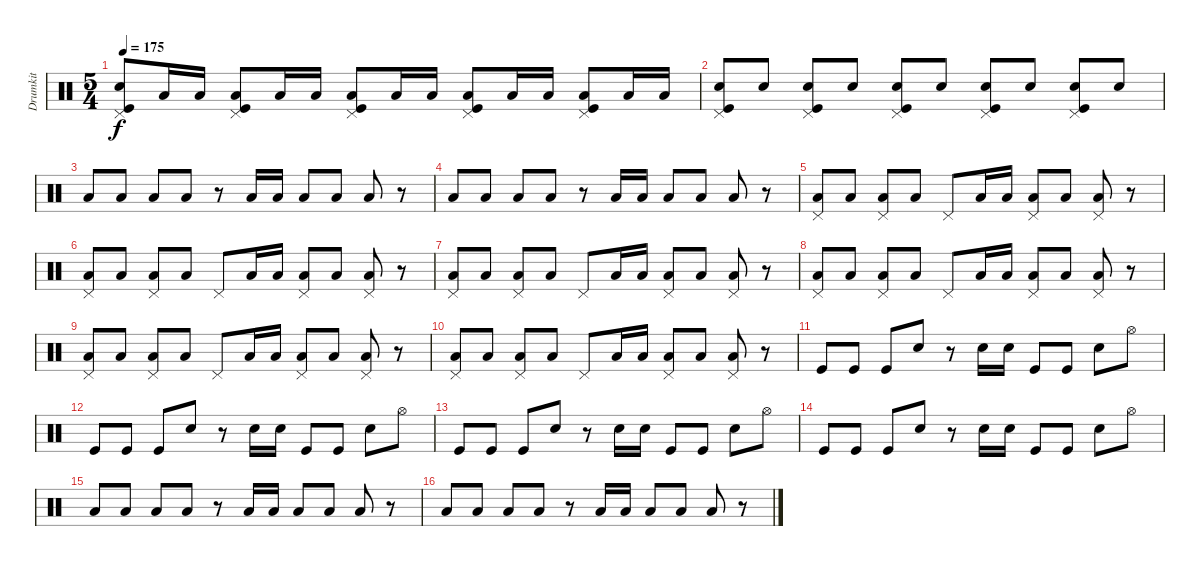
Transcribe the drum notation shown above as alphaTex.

\track ("Drumkit" "Drumkit") {instrument percussion}
\staff {score}
\articulation defaults
\ts (5 4)
\tempo 175
\clef neutral
\ks c
("Pedal Hi-Hat (hit)" "Kick (hit)" "Snare (hit) 2").8{dy f} "Low Floor Tom (hit)".16 "Low Floor Tom (hit)".16 ("Pedal Hi-Hat (hit)" "Kick (hit)" "Low Floor Tom (hit)").8 "Low Floor Tom (hit)".16 "Low Floor Tom (hit)".16 ("Pedal Hi-Hat (hit)" "Kick (hit)" "Low Floor Tom (hit)").8 "Low Floor Tom (hit)".16 "Low Floor Tom (hit)".16 ("Pedal Hi-Hat (hit)" "Kick (hit)" "Low Floor Tom (hit)").8 "Low Floor Tom (hit)".16 "Low Floor Tom (hit)".16 ("Pedal Hi-Hat (hit)" "Kick (hit)" "Low Floor Tom (hit)").8 "Low Floor Tom (hit)".16 "Low Floor Tom (hit)".16 |
("Kick (hit)" "Pedal Hi-Hat (hit)" "Snare (hit) 2").8 "Snare (hit) 2".8 ("Kick (hit)" "Pedal Hi-Hat (hit)" "Snare (hit) 2").8 "Snare (hit) 2".8 ("Kick (hit)" "Pedal Hi-Hat (hit)" "Snare (hit) 2").8 "Snare (hit) 2".8 ("Kick (hit)" "Pedal Hi-Hat (hit)" "Snare (hit) 2").8 "Snare (hit) 2".8 ("Kick (hit)" "Pedal Hi-Hat (hit)" "Snare (hit) 2").8 "Snare (hit) 2".8 |
"Low Tom (hit)".8 "Low Tom (hit)".8 "Low Tom (hit)".8 "Low Tom (hit)".8 r.8 "Low Tom (hit)".16 "Low Tom (hit)".16 "Low Tom (hit)".8 "Low Tom (hit)".8 "Low Tom (hit)".8 r.8 |
"Low Tom (hit)".8 "Low Tom (hit)".8 "Low Tom (hit)".8 "Low Tom (hit)".8 r.8 "Low Tom (hit)".16 "Low Tom (hit)".16 "Low Tom (hit)".8 "Low Tom (hit)".8 "Low Tom (hit)".8 r.8 |
("Low Tom (hit)" "Pedal Hi-Hat (hit)").8 "Low Tom (hit)".8 ("Low Tom (hit)" "Pedal Hi-Hat (hit)").8 "Low Tom (hit)".8 "Pedal Hi-Hat (hit)".8 "Low Tom (hit)".16 "Low Tom (hit)".16 ("Low Tom (hit)" "Pedal Hi-Hat (hit)").8 "Low Tom (hit)".8 ("Low Tom (hit)" "Pedal Hi-Hat (hit)").8 r.8 |
("Low Tom (hit)" "Pedal Hi-Hat (hit)").8 "Low Tom (hit)".8 ("Low Tom (hit)" "Pedal Hi-Hat (hit)").8 "Low Tom (hit)".8 "Pedal Hi-Hat (hit)".8 "Low Tom (hit)".16 "Low Tom (hit)".16 ("Low Tom (hit)" "Pedal Hi-Hat (hit)").8 "Low Tom (hit)".8 ("Low Tom (hit)" "Pedal Hi-Hat (hit)").8 r.8 |
("Low Tom (hit)" "Pedal Hi-Hat (hit)").8 "Low Tom (hit)".8 ("Low Tom (hit)" "Pedal Hi-Hat (hit)").8 "Low Tom (hit)".8 "Pedal Hi-Hat (hit)".8 "Low Tom (hit)".16 "Low Tom (hit)".16 ("Low Tom (hit)" "Pedal Hi-Hat (hit)").8 "Low Tom (hit)".8 ("Low Tom (hit)" "Pedal Hi-Hat (hit)").8 r.8 |
("Low Tom (hit)" "Pedal Hi-Hat (hit)").8 "Low Tom (hit)".8 ("Low Tom (hit)" "Pedal Hi-Hat (hit)").8 "Low Tom (hit)".8 "Pedal Hi-Hat (hit)".8 "Low Tom (hit)".16 "Low Tom (hit)".16 ("Low Tom (hit)" "Pedal Hi-Hat (hit)").8 "Low Tom (hit)".8 ("Low Tom (hit)" "Pedal Hi-Hat (hit)").8 r.8 |
("Low Tom (hit)" "Pedal Hi-Hat (hit)").8 "Low Tom (hit)".8 ("Low Tom (hit)" "Pedal Hi-Hat (hit)").8 "Low Tom (hit)".8 "Pedal Hi-Hat (hit)".8 "Low Tom (hit)".16 "Low Tom (hit)".16 ("Low Tom (hit)" "Pedal Hi-Hat (hit)").8 "Low Tom (hit)".8 ("Low Tom (hit)" "Pedal Hi-Hat (hit)").8 r.8 |
("Low Tom (hit)" "Pedal Hi-Hat (hit)").8 "Low Tom (hit)".8 ("Low Tom (hit)" "Pedal Hi-Hat (hit)").8 "Low Tom (hit)".8 "Pedal Hi-Hat (hit)".8 "Low Tom (hit)".16 "Low Tom (hit)".16 ("Low Tom (hit)" "Pedal Hi-Hat (hit)").8 "Low Tom (hit)".8 ("Low Tom (hit)" "Pedal Hi-Hat (hit)").8 r.8 |
"Kick (hit)".8 "Kick (hit)".8 "Kick (hit)".8 "Snare (hit) 2".8 r.8 "Snare (hit) 2".16 "Snare (hit) 2".16 "Kick (hit)".8 "Kick (hit)".8 "Snare (hit) 2".8 "Hi-Hat (open)".8 |
"Kick (hit)".8 "Kick (hit)".8 "Kick (hit)".8 "Snare (hit) 2".8 r.8 "Snare (hit) 2".16 "Snare (hit) 2".16 "Kick (hit)".8 "Kick (hit)".8 "Snare (hit) 2".8 "Hi-Hat (open)".8 |
"Kick (hit)".8 "Kick (hit)".8 "Kick (hit)".8 "Snare (hit) 2".8 r.8 "Snare (hit) 2".16 "Snare (hit) 2".16 "Kick (hit)".8 "Kick (hit)".8 "Snare (hit) 2".8 "Hi-Hat (open)".8 |
"Kick (hit)".8 "Kick (hit)".8 "Kick (hit)".8 "Snare (hit) 2".8 r.8 "Snare (hit) 2".16 "Snare (hit) 2".16 "Kick (hit)".8 "Kick (hit)".8 "Snare (hit) 2".8 "Hi-Hat (open)".8 |
"Low Tom (hit)".8 "Low Tom (hit)".8 "Low Tom (hit)".8 "Low Tom (hit)".8 r.8 "Low Tom (hit)".16 "Low Tom (hit)".16 "Low Tom (hit)".8 "Low Tom (hit)".8 "Low Tom (hit)".8 r.8 |
"Low Tom (hit)".8 "Low Tom (hit)".8 "Low Tom (hit)".8 "Low Tom (hit)".8 r.8 "Low Tom (hit)".16 "Low Tom (hit)".16 "Low Tom (hit)".8 "Low Tom (hit)".8 "Low Tom (hit)".8 r.8
